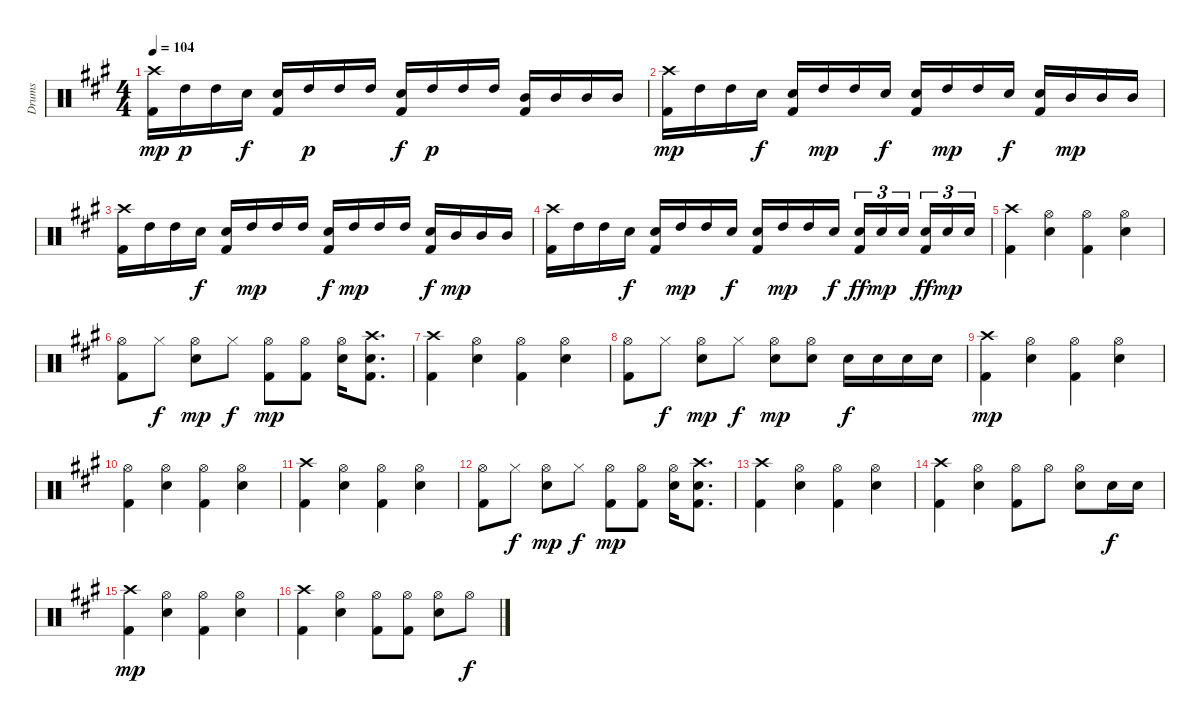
\track ("Drums" "Drums") {instrument percussion}
\staff {score}
\articulation defaults
\ts (4 4)
\tempo 104
\clef neutral
\ks a
("Crash high (hit)" "Kick (hit) 2").16{dy mp} "High Tom (hit)".16{dy p} "High Tom (hit)".16 "Electric Snare (hit)".16{dy f} ("Electric Snare (hit)" "Kick (hit) 2").16 "High Tom (hit)".16{dy p} "High Tom (hit)".16 "High Tom (hit)".16 ("Electric Snare (hit)" "Kick (hit) 2").16{dy f} "High Tom (hit)".16{dy p} "High Tom (hit)".16 "High Tom (hit)".16 ("Mid Tom (hit)" "Kick (hit) 2").16 "Mid Tom (hit)".16 "Mid Tom (hit)".16 "Mid Tom (hit)".16 |
("Crash high (hit)" "Kick (hit) 2").16{dy mp} "High Tom (hit)".16 "High Tom (hit)".16 "Electric Snare (hit)".16{dy f} ("Electric Snare (hit)" "Kick (hit) 2").16 "High Tom (hit)".16{dy mp} "High Tom (hit)".16 "Electric Snare (hit)".16{dy f} ("Electric Snare (hit)" "Kick (hit) 2").16 "High Tom (hit)".16{dy mp} "High Tom (hit)".16 "Electric Snare (hit)".16{dy f} ("Electric Snare (hit)" "Kick (hit) 2").16 "Mid Tom (hit)".16{dy mp} "Mid Tom (hit)".16 "Mid Tom (hit)".16 |
("Crash high (hit)" "Kick (hit) 2").16 "High Tom (hit)".16 "High Tom (hit)".16 "Electric Snare (hit)".16{dy f} ("Electric Snare (hit)" "Kick (hit) 2").16 "High Tom (hit)".16{dy mp} "High Tom (hit)".16 "High Tom (hit)".16 ("Electric Snare (hit)" "Kick (hit) 2").16{dy f} "High Tom (hit)".16{dy mp} "High Tom (hit)".16 "High Tom (hit)".16 ("Electric Snare (hit)" "Kick (hit) 2").16{dy f} "Mid Tom (hit)".16{dy mp} "Mid Tom (hit)".16 "Mid Tom (hit)".16 |
("Crash high (hit)" "Kick (hit) 2").16 "High Tom (hit)".16 "High Tom (hit)".16 "Electric Snare (hit)".16{dy f} ("Electric Snare (hit)" "Kick (hit) 2").16 "High Tom (hit)".16{dy mp} "High Tom (hit)".16 "Electric Snare (hit)".16{dy f} ("Electric Snare (hit)" "Kick (hit) 2").16 "High Tom (hit)".16{dy mp} "High Tom (hit)".16 "Electric Snare (hit)".16{dy f} ("Electric Snare (hit)" "Kick (hit) 2").16{tu (3 2) dy ff} "Electric Snare (hit)".16{tu (3 2) dy mp} "Electric Snare (hit)".16{tu (3 2) beam splitsecondary} ("Electric Snare (hit)" "Kick (hit) 2").16{tu (3 2) dy ff} "Electric Snare (hit)".16{tu (3 2) dy mp} "Electric Snare (hit)".16{tu (3 2)} |
("Kick (hit) 2" "Crash high (hit)").4 ("Hi-Hat (open)" "Electric Snare (hit)").4 ("Hi-Hat (open)" "Kick (hit) 2").4 ("Hi-Hat (open)" "Electric Snare (hit)").4 |
("Hi-Hat (open)" "Kick (hit) 2").8 "Hi-Hat (closed)".8{dy f} ("Hi-Hat (open)" "Electric Snare (hit)").8{dy mp} "Hi-Hat (closed)".8{dy f} ("Hi-Hat (open)" "Kick (hit) 2").8{dy mp} ("Hi-Hat (open)" "Kick (hit) 2").8 ("Electric Snare (hit)" "Hi-Hat (open)").16 ("Electric Snare (hit)" "Kick (hit) 2" "Crash high (hit)").8{d} |
("Kick (hit) 2" "Crash high (hit)").4 ("Hi-Hat (open)" "Electric Snare (hit)").4 ("Hi-Hat (open)" "Kick (hit) 2").4 ("Hi-Hat (open)" "Electric Snare (hit)").4 |
("Hi-Hat (open)" "Kick (hit) 2").8 "Hi-Hat (closed)".8{dy f} ("Hi-Hat (open)" "Electric Snare (hit)").8{dy mp} "Hi-Hat (closed)".8{dy f} ("Hi-Hat (open)" "Electric Snare (hit)").8{dy mp} ("Hi-Hat (open)" "Electric Snare (hit)").8 "Electric Snare (hit)".16{dy f} "Electric Snare (hit)".16 "Electric Snare (hit)".16 "Electric Snare (hit)".16 |
("Kick (hit) 2" "Crash high (hit)").4{dy mp} ("Hi-Hat (open)" "Electric Snare (hit)").4 ("Hi-Hat (open)" "Kick (hit) 2").4 ("Hi-Hat (open)" "Electric Snare (hit)").4 |
("Hi-Hat (open)" "Kick (hit) 2").4 ("Hi-Hat (open)" "Electric Snare (hit)").4 ("Hi-Hat (open)" "Kick (hit) 2").4 ("Hi-Hat (open)" "Electric Snare (hit)").4 |
("Kick (hit) 2" "Crash high (hit)").4 ("Hi-Hat (open)" "Electric Snare (hit)").4 ("Hi-Hat (open)" "Kick (hit) 2").4 ("Hi-Hat (open)" "Electric Snare (hit)").4 |
("Hi-Hat (open)" "Kick (hit) 2").8 "Hi-Hat (closed)".8{dy f} ("Hi-Hat (open)" "Electric Snare (hit)").8{dy mp} "Hi-Hat (closed)".8{dy f} ("Hi-Hat (open)" "Kick (hit) 2").8{dy mp} ("Hi-Hat (open)" "Kick (hit) 2").8 ("Electric Snare (hit)" "Hi-Hat (open)").16 ("Electric Snare (hit)" "Kick (hit) 2" "Crash high (hit)").8{d} |
("Kick (hit) 2" "Crash high (hit)").4 ("Hi-Hat (open)" "Electric Snare (hit)").4 ("Hi-Hat (open)" "Kick (hit) 2").4 ("Hi-Hat (open)" "Electric Snare (hit)").4 |
("Kick (hit) 2" "Crash high (hit)").4 ("Hi-Hat (open)" "Electric Snare (hit)").4 ("Hi-Hat (open)" "Kick (hit) 2").8 "Hi-Hat (open)".8 ("Hi-Hat (open)" "Electric Snare (hit)").8 "Electric Snare (hit)".16{dy f} "Electric Snare (hit)".16 |
("Kick (hit) 2" "Crash high (hit)").4{dy mp} ("Hi-Hat (open)" "Electric Snare (hit)").4 ("Hi-Hat (open)" "Kick (hit) 2").4 ("Hi-Hat (open)" "Electric Snare (hit)").4 |
("Kick (hit) 2" "Crash high (hit)").4 ("Hi-Hat (open)" "Electric Snare (hit)").4 ("Hi-Hat (open)" "Kick (hit) 2").8 ("Hi-Hat (open)" "Kick (hit) 2").8 ("Hi-Hat (open)" "Electric Snare (hit)").8 "Hi-Hat (open)".8{dy f}
